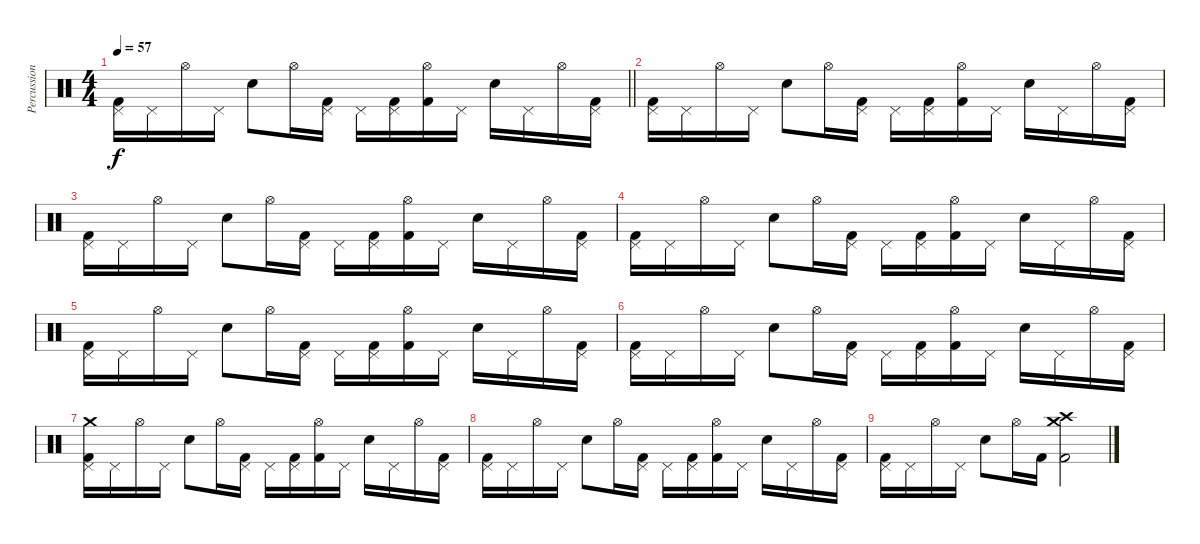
\track ("Percussion" "Percussion") {instrument percussion}
\staff {score}
\articulation defaults
\ts (4 4)
\tempo 57
\clef neutral
\barLineRight lightlight
\ks c
("Pedal Hi-Hat (hit)" "Kick (hit) 2").16{dy f} "Pedal Hi-Hat (hit)".16 "Hi-Hat (open)".16 "Pedal Hi-Hat (hit)".16 "Electric Snare (hit)".8 "Hi-Hat (open)".16 ("Pedal Hi-Hat (hit)" "Kick (hit) 2").16 "Pedal Hi-Hat (hit)".16 ("Pedal Hi-Hat (hit)" "Kick (hit) 2").16 ("Hi-Hat (open)" "Kick (hit) 2").16 "Pedal Hi-Hat (hit)".16 "Electric Snare (hit)".16 "Pedal Hi-Hat (hit)".16 "Hi-Hat (open)".16 ("Pedal Hi-Hat (hit)" "Kick (hit) 2").16 |
("Pedal Hi-Hat (hit)" "Kick (hit) 2").16 "Pedal Hi-Hat (hit)".16 "Hi-Hat (open)".16 "Pedal Hi-Hat (hit)".16 "Electric Snare (hit)".8 "Hi-Hat (open)".16 ("Pedal Hi-Hat (hit)" "Kick (hit) 2").16 "Pedal Hi-Hat (hit)".16 ("Pedal Hi-Hat (hit)" "Kick (hit) 2").16 ("Hi-Hat (open)" "Kick (hit) 2").16 "Pedal Hi-Hat (hit)".16 "Electric Snare (hit)".16 "Pedal Hi-Hat (hit)".16 "Hi-Hat (open)".16 ("Pedal Hi-Hat (hit)" "Kick (hit) 2").16 |
("Pedal Hi-Hat (hit)" "Kick (hit) 2").16 "Pedal Hi-Hat (hit)".16 "Hi-Hat (open)".16 "Pedal Hi-Hat (hit)".16 "Electric Snare (hit)".8 "Hi-Hat (open)".16 ("Pedal Hi-Hat (hit)" "Kick (hit) 2").16 "Pedal Hi-Hat (hit)".16 ("Pedal Hi-Hat (hit)" "Kick (hit) 2").16 ("Hi-Hat (open)" "Kick (hit) 2").16 "Pedal Hi-Hat (hit)".16 "Electric Snare (hit)".16 "Pedal Hi-Hat (hit)".16 "Hi-Hat (open)".16 ("Pedal Hi-Hat (hit)" "Kick (hit) 2").16 |
("Pedal Hi-Hat (hit)" "Kick (hit) 2").16 "Pedal Hi-Hat (hit)".16 "Hi-Hat (open)".16 "Pedal Hi-Hat (hit)".16 "Electric Snare (hit)".8 "Hi-Hat (open)".16 ("Pedal Hi-Hat (hit)" "Kick (hit) 2").16 "Pedal Hi-Hat (hit)".16 ("Pedal Hi-Hat (hit)" "Kick (hit) 2").16 ("Hi-Hat (open)" "Kick (hit) 2").16 "Pedal Hi-Hat (hit)".16 "Electric Snare (hit)".16 "Pedal Hi-Hat (hit)".16 "Hi-Hat (open)".16 ("Pedal Hi-Hat (hit)" "Kick (hit) 2").16 |
("Pedal Hi-Hat (hit)" "Kick (hit) 2").16 "Pedal Hi-Hat (hit)".16 "Hi-Hat (open)".16 "Pedal Hi-Hat (hit)".16 "Electric Snare (hit)".8 "Hi-Hat (open)".16 ("Pedal Hi-Hat (hit)" "Kick (hit) 2").16 "Pedal Hi-Hat (hit)".16 ("Pedal Hi-Hat (hit)" "Kick (hit) 2").16 ("Hi-Hat (open)" "Kick (hit) 2").16 "Pedal Hi-Hat (hit)".16 "Electric Snare (hit)".16 "Pedal Hi-Hat (hit)".16 "Hi-Hat (open)".16 ("Pedal Hi-Hat (hit)" "Kick (hit) 2").16 |
("Pedal Hi-Hat (hit)" "Kick (hit) 2").16 "Pedal Hi-Hat (hit)".16 "Hi-Hat (open)".16 "Pedal Hi-Hat (hit)".16 "Electric Snare (hit)".8 "Hi-Hat (open)".16 ("Pedal Hi-Hat (hit)" "Kick (hit) 2").16 "Pedal Hi-Hat (hit)".16 ("Pedal Hi-Hat (hit)" "Kick (hit) 2").16 ("Hi-Hat (open)" "Kick (hit) 2").16 "Pedal Hi-Hat (hit)".16 "Electric Snare (hit)".16 "Pedal Hi-Hat (hit)".16 "Hi-Hat (open)".16 ("Pedal Hi-Hat (hit)" "Kick (hit) 2").16 |
("Pedal Hi-Hat (hit)" "Crash medium (hit)" "Kick (hit) 2").16 "Pedal Hi-Hat (hit)".16 "Hi-Hat (open)".16 "Pedal Hi-Hat (hit)".16 "Electric Snare (hit)".8 "Hi-Hat (open)".16 ("Pedal Hi-Hat (hit)" "Kick (hit) 2").16 "Pedal Hi-Hat (hit)".16 ("Pedal Hi-Hat (hit)" "Kick (hit) 2").16 ("Hi-Hat (open)" "Kick (hit) 2").16 "Pedal Hi-Hat (hit)".16 "Electric Snare (hit)".16 "Pedal Hi-Hat (hit)".16 "Hi-Hat (open)".16 ("Pedal Hi-Hat (hit)" "Kick (hit) 2").16 |
("Pedal Hi-Hat (hit)" "Kick (hit) 2").16 "Pedal Hi-Hat (hit)".16 "Hi-Hat (open)".16 "Pedal Hi-Hat (hit)".16 "Electric Snare (hit)".8 "Hi-Hat (open)".16 ("Pedal Hi-Hat (hit)" "Kick (hit) 2").16 "Pedal Hi-Hat (hit)".16 ("Pedal Hi-Hat (hit)" "Kick (hit) 2").16 ("Hi-Hat (open)" "Kick (hit) 2").16 "Pedal Hi-Hat (hit)".16 "Electric Snare (hit)".16 "Pedal Hi-Hat (hit)".16 "Hi-Hat (open)".16 ("Pedal Hi-Hat (hit)" "Kick (hit) 2").16 |
("Pedal Hi-Hat (hit)" "Kick (hit) 2").16 "Pedal Hi-Hat (hit)".16 "Hi-Hat (open)".16 "Pedal Hi-Hat (hit)".16 "Electric Snare (hit)".8 "Hi-Hat (open)".16 "Kick (hit) 2".16 ("Crash high (hit)" "Crash medium (hit)" "Kick (hit) 2").2
